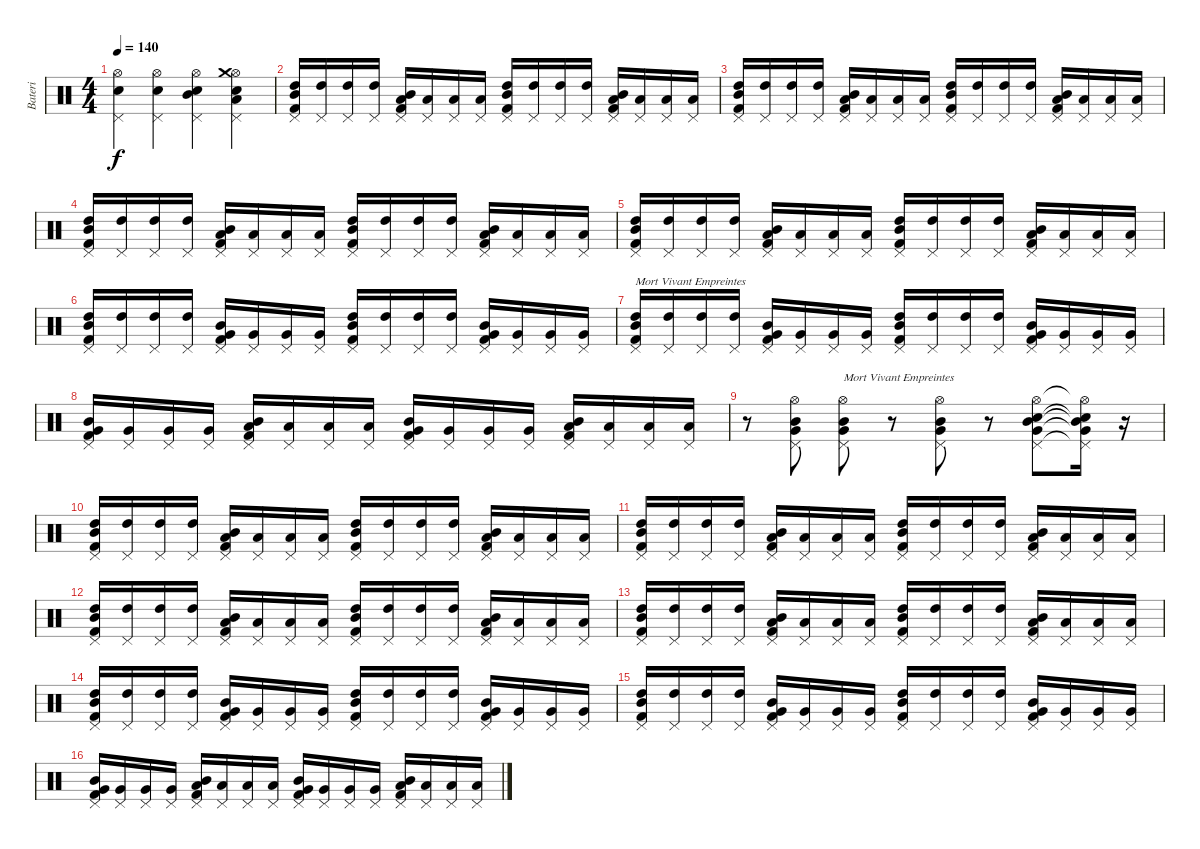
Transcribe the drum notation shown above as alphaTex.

\track ("Bateri" "Bateri") {instrument percussion}
\staff {score}
\articulation defaults
\ts (4 4)
\tempo 140
\clef neutral
\ks c
("Hi-Hat (open)" "Snare (hit) 2" "Pedal Hi-Hat (hit)").4{dy f} ("Hi-Hat (open)" "Snare (hit) 2" "Pedal Hi-Hat (hit)").4 ("Hi-Hat (open)" "Mid Tom (hit)" "Snare (hit) 2" "Pedal Hi-Hat (hit)").4 ("Hi-Hat (open)" "Low Tom (hit)" "Snare (hit) 2" "Crash medium (hit)" "Pedal Hi-Hat (hit)").4 |
("High Tom (hit)" "Mid Tom (hit)" "Kick (hit) 2" "Pedal Hi-Hat (hit)").16 ("High Tom (hit)" "Pedal Hi-Hat (hit)").16 ("High Tom (hit)" "Pedal Hi-Hat (hit)").16 ("High Tom (hit)" "Pedal Hi-Hat (hit)").16 ("Low Tom (hit)" "Mid Tom (hit)" "Kick (hit) 2" "Pedal Hi-Hat (hit)").16 ("Low Tom (hit)" "Pedal Hi-Hat (hit)").16 ("Low Tom (hit)" "Pedal Hi-Hat (hit)").16 ("Low Tom (hit)" "Pedal Hi-Hat (hit)").16 ("High Tom (hit)" "Mid Tom (hit)" "Kick (hit) 2" "Pedal Hi-Hat (hit)").16 ("High Tom (hit)" "Pedal Hi-Hat (hit)").16 ("High Tom (hit)" "Pedal Hi-Hat (hit)").16 ("High Tom (hit)" "Pedal Hi-Hat (hit)").16 ("Low Tom (hit)" "Mid Tom (hit)" "Kick (hit) 2" "Pedal Hi-Hat (hit)").16 ("Low Tom (hit)" "Pedal Hi-Hat (hit)").16 ("Low Tom (hit)" "Pedal Hi-Hat (hit)").16 ("Low Tom (hit)" "Pedal Hi-Hat (hit)").16 |
("High Tom (hit)" "Mid Tom (hit)" "Kick (hit) 2" "Pedal Hi-Hat (hit)").16 ("High Tom (hit)" "Pedal Hi-Hat (hit)").16 ("High Tom (hit)" "Pedal Hi-Hat (hit)").16 ("High Tom (hit)" "Pedal Hi-Hat (hit)").16 ("Low Tom (hit)" "Mid Tom (hit)" "Kick (hit) 2" "Pedal Hi-Hat (hit)").16 ("Low Tom (hit)" "Pedal Hi-Hat (hit)").16 ("Low Tom (hit)" "Pedal Hi-Hat (hit)").16 ("Low Tom (hit)" "Pedal Hi-Hat (hit)").16 ("High Tom (hit)" "Mid Tom (hit)" "Kick (hit) 2" "Pedal Hi-Hat (hit)").16 ("High Tom (hit)" "Pedal Hi-Hat (hit)").16 ("High Tom (hit)" "Pedal Hi-Hat (hit)").16 ("High Tom (hit)" "Pedal Hi-Hat (hit)").16 ("Low Tom (hit)" "Mid Tom (hit)" "Kick (hit) 2" "Pedal Hi-Hat (hit)").16 ("Low Tom (hit)" "Pedal Hi-Hat (hit)").16 ("Low Tom (hit)" "Pedal Hi-Hat (hit)").16 ("Low Tom (hit)" "Pedal Hi-Hat (hit)").16 |
("High Tom (hit)" "Mid Tom (hit)" "Kick (hit) 2" "Pedal Hi-Hat (hit)").16 ("High Tom (hit)" "Pedal Hi-Hat (hit)").16 ("High Tom (hit)" "Pedal Hi-Hat (hit)").16 ("High Tom (hit)" "Pedal Hi-Hat (hit)").16 ("Low Tom (hit)" "Mid Tom (hit)" "Kick (hit) 2" "Pedal Hi-Hat (hit)").16 ("Low Tom (hit)" "Pedal Hi-Hat (hit)").16 ("Low Tom (hit)" "Pedal Hi-Hat (hit)").16 ("Low Tom (hit)" "Pedal Hi-Hat (hit)").16 ("High Tom (hit)" "Mid Tom (hit)" "Kick (hit) 2" "Pedal Hi-Hat (hit)").16 ("High Tom (hit)" "Pedal Hi-Hat (hit)").16 ("High Tom (hit)" "Pedal Hi-Hat (hit)").16 ("High Tom (hit)" "Pedal Hi-Hat (hit)").16 ("Low Tom (hit)" "Mid Tom (hit)" "Kick (hit) 2" "Pedal Hi-Hat (hit)").16 ("Low Tom (hit)" "Pedal Hi-Hat (hit)").16 ("Low Tom (hit)" "Pedal Hi-Hat (hit)").16 ("Low Tom (hit)" "Pedal Hi-Hat (hit)").16 |
("High Tom (hit)" "Mid Tom (hit)" "Kick (hit) 2" "Pedal Hi-Hat (hit)").16 ("High Tom (hit)" "Pedal Hi-Hat (hit)").16 ("High Tom (hit)" "Pedal Hi-Hat (hit)").16 ("High Tom (hit)" "Pedal Hi-Hat (hit)").16 ("Low Tom (hit)" "Mid Tom (hit)" "Kick (hit) 2" "Pedal Hi-Hat (hit)").16 ("Low Tom (hit)" "Pedal Hi-Hat (hit)").16 ("Low Tom (hit)" "Pedal Hi-Hat (hit)").16 ("Low Tom (hit)" "Pedal Hi-Hat (hit)").16 ("High Tom (hit)" "Mid Tom (hit)" "Kick (hit) 2" "Pedal Hi-Hat (hit)").16 ("High Tom (hit)" "Pedal Hi-Hat (hit)").16 ("High Tom (hit)" "Pedal Hi-Hat (hit)").16 ("High Tom (hit)" "Pedal Hi-Hat (hit)").16 ("Low Tom (hit)" "Mid Tom (hit)" "Kick (hit) 2" "Pedal Hi-Hat (hit)").16 ("Low Tom (hit)" "Pedal Hi-Hat (hit)").16 ("Low Tom (hit)" "Pedal Hi-Hat (hit)").16 ("Low Tom (hit)" "Pedal Hi-Hat (hit)").16 |
("High Tom (hit)" "Mid Tom (hit)" "Kick (hit) 2" "Pedal Hi-Hat (hit)").16 ("High Tom (hit)" "Pedal Hi-Hat (hit)").16 ("High Tom (hit)" "Pedal Hi-Hat (hit)").16 ("High Tom (hit)" "Pedal Hi-Hat (hit)").16 ("Very Low Tom (hit)" "Mid Tom (hit)" "Kick (hit) 2" "Pedal Hi-Hat (hit)").16 ("Very Low Tom (hit)" "Pedal Hi-Hat (hit)").16 ("Very Low Tom (hit)" "Pedal Hi-Hat (hit)").16 ("Very Low Tom (hit)" "Pedal Hi-Hat (hit)").16 ("High Tom (hit)" "Mid Tom (hit)" "Kick (hit) 2" "Pedal Hi-Hat (hit)").16 ("High Tom (hit)" "Pedal Hi-Hat (hit)").16 ("High Tom (hit)" "Pedal Hi-Hat (hit)").16 ("High Tom (hit)" "Pedal Hi-Hat (hit)").16 ("Very Low Tom (hit)" "Mid Tom (hit)" "Kick (hit) 2" "Pedal Hi-Hat (hit)").16 ("Very Low Tom (hit)" "Pedal Hi-Hat (hit)").16 ("Very Low Tom (hit)" "Pedal Hi-Hat (hit)").16 ("Very Low Tom (hit)" "Pedal Hi-Hat (hit)").16 |
("High Tom (hit)" "Mid Tom (hit)" "Kick (hit) 2" "Pedal Hi-Hat (hit)").16{txt "Mort Vivant Empreintes"} ("High Tom (hit)" "Pedal Hi-Hat (hit)").16 ("High Tom (hit)" "Pedal Hi-Hat (hit)").16 ("High Tom (hit)" "Pedal Hi-Hat (hit)").16 ("Very Low Tom (hit)" "Mid Tom (hit)" "Kick (hit) 2" "Pedal Hi-Hat (hit)").16 ("Very Low Tom (hit)" "Pedal Hi-Hat (hit)").16 ("Very Low Tom (hit)" "Pedal Hi-Hat (hit)").16 ("Very Low Tom (hit)" "Pedal Hi-Hat (hit)").16 ("High Tom (hit)" "Mid Tom (hit)" "Kick (hit) 2" "Pedal Hi-Hat (hit)").16 ("High Tom (hit)" "Pedal Hi-Hat (hit)").16 ("High Tom (hit)" "Pedal Hi-Hat (hit)").16 ("High Tom (hit)" "Pedal Hi-Hat (hit)").16 ("Very Low Tom (hit)" "Mid Tom (hit)" "Kick (hit) 2" "Pedal Hi-Hat (hit)").16 ("Very Low Tom (hit)" "Pedal Hi-Hat (hit)").16 ("Very Low Tom (hit)" "Pedal Hi-Hat (hit)").16 ("Very Low Tom (hit)" "Pedal Hi-Hat (hit)").16 |
("Very Low Tom (hit)" "Mid Tom (hit)" "Kick (hit) 2" "Pedal Hi-Hat (hit)").16 ("Very Low Tom (hit)" "Pedal Hi-Hat (hit)").16 ("Very Low Tom (hit)" "Pedal Hi-Hat (hit)").16 ("Very Low Tom (hit)" "Pedal Hi-Hat (hit)").16 ("Low Tom (hit)" "Mid Tom (hit)" "Kick (hit) 2" "Pedal Hi-Hat (hit)").16 ("Low Tom (hit)" "Pedal Hi-Hat (hit)").16 ("Low Tom (hit)" "Pedal Hi-Hat (hit)").16 ("Low Tom (hit)" "Pedal Hi-Hat (hit)").16 ("Very Low Tom (hit)" "Mid Tom (hit)" "Kick (hit) 2" "Pedal Hi-Hat (hit)").16 ("Very Low Tom (hit)" "Pedal Hi-Hat (hit)").16 ("Very Low Tom (hit)" "Pedal Hi-Hat (hit)").16 ("Very Low Tom (hit)" "Pedal Hi-Hat (hit)").16 ("Low Tom (hit)" "Mid Tom (hit)" "Kick (hit) 2" "Pedal Hi-Hat (hit)").16 ("Low Tom (hit)" "Pedal Hi-Hat (hit)").16 ("Low Tom (hit)" "Pedal Hi-Hat (hit)").16 ("Low Tom (hit)" "Pedal Hi-Hat (hit)").16 |
r.8 ("Hi-Hat (open)" "Very Low Tom (hit)" "Mid Tom (hit)" "Pedal Hi-Hat (hit)").8 ("Hi-Hat (open)" "Very Low Tom (hit)" "Mid Tom (hit)" "Pedal Hi-Hat (hit)").8{txt "Mort Vivant Empreintes"} r.8 ("Hi-Hat (open)" "Very Low Tom (hit)" "Mid Tom (hit)" "Pedal Hi-Hat (hit)").8 r.8 ("Hi-Hat (open)" "Very Low Tom (hit)" "Mid Tom (hit)" "Snare (hit) 2" "Pedal Hi-Hat (hit)").8 ("Hi-Hat (open)"{t} "Very Low Tom (hit)"{t} "Mid Tom (hit)"{t} "Snare (hit) 2"{t} "Pedal Hi-Hat (hit)"{t}).16 r.16 |
("High Tom (hit)" "Mid Tom (hit)" "Kick (hit) 2" "Pedal Hi-Hat (hit)").16 ("High Tom (hit)" "Pedal Hi-Hat (hit)").16 ("High Tom (hit)" "Pedal Hi-Hat (hit)").16 ("High Tom (hit)" "Pedal Hi-Hat (hit)").16 ("Low Tom (hit)" "Mid Tom (hit)" "Kick (hit) 2" "Pedal Hi-Hat (hit)").16 ("Low Tom (hit)" "Pedal Hi-Hat (hit)").16 ("Low Tom (hit)" "Pedal Hi-Hat (hit)").16 ("Low Tom (hit)" "Pedal Hi-Hat (hit)").16 ("High Tom (hit)" "Mid Tom (hit)" "Kick (hit) 2" "Pedal Hi-Hat (hit)").16 ("High Tom (hit)" "Pedal Hi-Hat (hit)").16 ("High Tom (hit)" "Pedal Hi-Hat (hit)").16 ("High Tom (hit)" "Pedal Hi-Hat (hit)").16 ("Low Tom (hit)" "Mid Tom (hit)" "Kick (hit) 2" "Pedal Hi-Hat (hit)").16 ("Low Tom (hit)" "Pedal Hi-Hat (hit)").16 ("Low Tom (hit)" "Pedal Hi-Hat (hit)").16 ("Low Tom (hit)" "Pedal Hi-Hat (hit)").16 |
("High Tom (hit)" "Mid Tom (hit)" "Kick (hit) 2" "Pedal Hi-Hat (hit)").16 ("High Tom (hit)" "Pedal Hi-Hat (hit)").16 ("High Tom (hit)" "Pedal Hi-Hat (hit)").16 ("High Tom (hit)" "Pedal Hi-Hat (hit)").16 ("Low Tom (hit)" "Mid Tom (hit)" "Kick (hit) 2" "Pedal Hi-Hat (hit)").16 ("Low Tom (hit)" "Pedal Hi-Hat (hit)").16 ("Low Tom (hit)" "Pedal Hi-Hat (hit)").16 ("Low Tom (hit)" "Pedal Hi-Hat (hit)").16 ("High Tom (hit)" "Mid Tom (hit)" "Kick (hit) 2" "Pedal Hi-Hat (hit)").16 ("High Tom (hit)" "Pedal Hi-Hat (hit)").16 ("High Tom (hit)" "Pedal Hi-Hat (hit)").16 ("High Tom (hit)" "Pedal Hi-Hat (hit)").16 ("Low Tom (hit)" "Mid Tom (hit)" "Kick (hit) 2" "Pedal Hi-Hat (hit)").16 ("Low Tom (hit)" "Pedal Hi-Hat (hit)").16 ("Low Tom (hit)" "Pedal Hi-Hat (hit)").16 ("Low Tom (hit)" "Pedal Hi-Hat (hit)").16 |
("High Tom (hit)" "Mid Tom (hit)" "Kick (hit) 2" "Pedal Hi-Hat (hit)").16 ("High Tom (hit)" "Pedal Hi-Hat (hit)").16 ("High Tom (hit)" "Pedal Hi-Hat (hit)").16 ("High Tom (hit)" "Pedal Hi-Hat (hit)").16 ("Low Tom (hit)" "Mid Tom (hit)" "Kick (hit) 2" "Pedal Hi-Hat (hit)").16 ("Low Tom (hit)" "Pedal Hi-Hat (hit)").16 ("Low Tom (hit)" "Pedal Hi-Hat (hit)").16 ("Low Tom (hit)" "Pedal Hi-Hat (hit)").16 ("High Tom (hit)" "Mid Tom (hit)" "Kick (hit) 2" "Pedal Hi-Hat (hit)").16 ("High Tom (hit)" "Pedal Hi-Hat (hit)").16 ("High Tom (hit)" "Pedal Hi-Hat (hit)").16 ("High Tom (hit)" "Pedal Hi-Hat (hit)").16 ("Low Tom (hit)" "Mid Tom (hit)" "Kick (hit) 2" "Pedal Hi-Hat (hit)").16 ("Low Tom (hit)" "Pedal Hi-Hat (hit)").16 ("Low Tom (hit)" "Pedal Hi-Hat (hit)").16 ("Low Tom (hit)" "Pedal Hi-Hat (hit)").16 |
("High Tom (hit)" "Mid Tom (hit)" "Kick (hit) 2" "Pedal Hi-Hat (hit)").16 ("High Tom (hit)" "Pedal Hi-Hat (hit)").16 ("High Tom (hit)" "Pedal Hi-Hat (hit)").16 ("High Tom (hit)" "Pedal Hi-Hat (hit)").16 ("Low Tom (hit)" "Mid Tom (hit)" "Kick (hit) 2" "Pedal Hi-Hat (hit)").16 ("Low Tom (hit)" "Pedal Hi-Hat (hit)").16 ("Low Tom (hit)" "Pedal Hi-Hat (hit)").16 ("Low Tom (hit)" "Pedal Hi-Hat (hit)").16 ("High Tom (hit)" "Mid Tom (hit)" "Kick (hit) 2" "Pedal Hi-Hat (hit)").16 ("High Tom (hit)" "Pedal Hi-Hat (hit)").16 ("High Tom (hit)" "Pedal Hi-Hat (hit)").16 ("High Tom (hit)" "Pedal Hi-Hat (hit)").16 ("Low Tom (hit)" "Mid Tom (hit)" "Kick (hit) 2" "Pedal Hi-Hat (hit)").16 ("Low Tom (hit)" "Pedal Hi-Hat (hit)").16 ("Low Tom (hit)" "Pedal Hi-Hat (hit)").16 ("Low Tom (hit)" "Pedal Hi-Hat (hit)").16 |
("High Tom (hit)" "Mid Tom (hit)" "Kick (hit) 2" "Pedal Hi-Hat (hit)").16 ("High Tom (hit)" "Pedal Hi-Hat (hit)").16 ("High Tom (hit)" "Pedal Hi-Hat (hit)").16 ("High Tom (hit)" "Pedal Hi-Hat (hit)").16 ("Very Low Tom (hit)" "Mid Tom (hit)" "Kick (hit) 2" "Pedal Hi-Hat (hit)").16 ("Very Low Tom (hit)" "Pedal Hi-Hat (hit)").16 ("Very Low Tom (hit)" "Pedal Hi-Hat (hit)").16 ("Very Low Tom (hit)" "Pedal Hi-Hat (hit)").16 ("High Tom (hit)" "Mid Tom (hit)" "Kick (hit) 2" "Pedal Hi-Hat (hit)").16 ("High Tom (hit)" "Pedal Hi-Hat (hit)").16 ("High Tom (hit)" "Pedal Hi-Hat (hit)").16 ("High Tom (hit)" "Pedal Hi-Hat (hit)").16 ("Very Low Tom (hit)" "Mid Tom (hit)" "Kick (hit) 2" "Pedal Hi-Hat (hit)").16 ("Very Low Tom (hit)" "Pedal Hi-Hat (hit)").16 ("Very Low Tom (hit)" "Pedal Hi-Hat (hit)").16 ("Very Low Tom (hit)" "Pedal Hi-Hat (hit)").16 |
("High Tom (hit)" "Mid Tom (hit)" "Kick (hit) 2" "Pedal Hi-Hat (hit)").16 ("High Tom (hit)" "Pedal Hi-Hat (hit)").16 ("High Tom (hit)" "Pedal Hi-Hat (hit)").16 ("High Tom (hit)" "Pedal Hi-Hat (hit)").16 ("Very Low Tom (hit)" "Mid Tom (hit)" "Kick (hit) 2" "Pedal Hi-Hat (hit)").16 ("Very Low Tom (hit)" "Pedal Hi-Hat (hit)").16 ("Very Low Tom (hit)" "Pedal Hi-Hat (hit)").16 ("Very Low Tom (hit)" "Pedal Hi-Hat (hit)").16 ("High Tom (hit)" "Mid Tom (hit)" "Kick (hit) 2" "Pedal Hi-Hat (hit)").16 ("High Tom (hit)" "Pedal Hi-Hat (hit)").16 ("High Tom (hit)" "Pedal Hi-Hat (hit)").16 ("High Tom (hit)" "Pedal Hi-Hat (hit)").16 ("Very Low Tom (hit)" "Mid Tom (hit)" "Kick (hit) 2" "Pedal Hi-Hat (hit)").16 ("Very Low Tom (hit)" "Pedal Hi-Hat (hit)").16 ("Very Low Tom (hit)" "Pedal Hi-Hat (hit)").16 ("Very Low Tom (hit)" "Pedal Hi-Hat (hit)").16 |
("Very Low Tom (hit)" "Mid Tom (hit)" "Kick (hit) 2" "Pedal Hi-Hat (hit)").16 ("Very Low Tom (hit)" "Pedal Hi-Hat (hit)").16 ("Very Low Tom (hit)" "Pedal Hi-Hat (hit)").16 ("Very Low Tom (hit)" "Pedal Hi-Hat (hit)").16 ("Low Tom (hit)" "Mid Tom (hit)" "Kick (hit) 2" "Pedal Hi-Hat (hit)").16 ("Low Tom (hit)" "Pedal Hi-Hat (hit)").16 ("Low Tom (hit)" "Pedal Hi-Hat (hit)").16 ("Low Tom (hit)" "Pedal Hi-Hat (hit)").16 ("Very Low Tom (hit)" "Mid Tom (hit)" "Kick (hit) 2" "Pedal Hi-Hat (hit)").16 ("Very Low Tom (hit)" "Pedal Hi-Hat (hit)").16 ("Very Low Tom (hit)" "Pedal Hi-Hat (hit)").16 ("Very Low Tom (hit)" "Pedal Hi-Hat (hit)").16 ("Low Tom (hit)" "Mid Tom (hit)" "Kick (hit) 2" "Pedal Hi-Hat (hit)").16 ("Low Tom (hit)" "Pedal Hi-Hat (hit)").16 ("Low Tom (hit)" "Pedal Hi-Hat (hit)").16 ("Low Tom (hit)" "Pedal Hi-Hat (hit)").16
